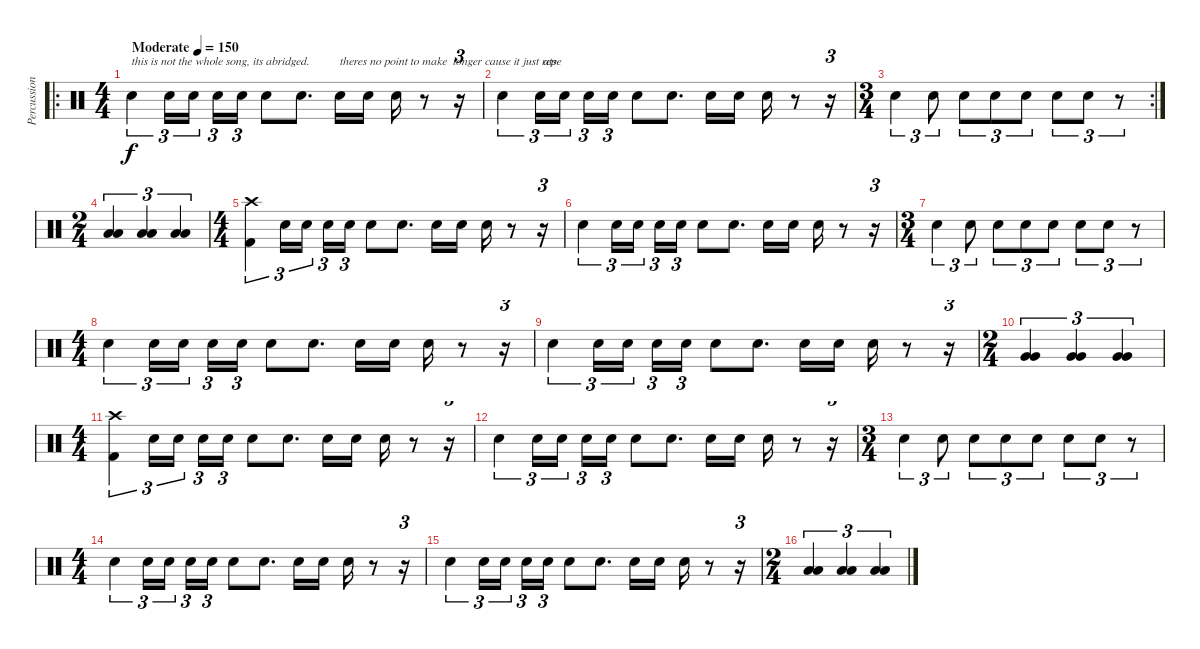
\track ("Percussion" "Percussion") {instrument percussion}
\staff {score}
\articulation defaults
\ro
\ts (4 4)
\tempo (150 "Moderate")
\clef neutral
\ks c "Electric Snare (hit)".4{tu (3 2) txt "this is not the whole song, its abridged. " dy f} "Electric Snare (hit)".16{tu (3 2)} "Electric Snare (hit)".16{tu (3 2)} "Electric Snare (hit)".16{tu (3 2)} "Electric Snare (hit)".16{tu (3 2)} "Electric Snare (hit)".8 "Electric Snare (hit)".8{d} "Electric Snare (hit)".16{txt "theres no point to make  longer cause it just repe"} "Electric Snare (hit)".16 "Electric Snare (hit)".16
r.8 r.16{tu (3 2)} |
"Electric Snare (hit)".4{tu (3 2)} "Electric Snare (hit)".16{tu (3 2) txt " ats"} "Electric Snare (hit)".16{tu (3 2)} "Electric Snare (hit)".16{tu (3 2)} "Electric Snare (hit)".16{tu (3 2)} "Electric Snare (hit)".8 "Electric Snare (hit)".8{d} "Electric Snare (hit)".16 "Electric Snare (hit)".16 "Electric Snare (hit)".16 r.8 r.16{tu (3 2)} |
\rc 2
\ts (3 4)
"Electric Snare (hit)".4{tu (3 2)} "Electric Snare (hit)".8{tu (3 2)} "Electric Snare (hit)".8{tu (3 2)} "Electric Snare (hit)".8{tu (3 2)} "Electric Snare (hit)".8{tu (3 2)} "Electric Snare (hit)".8{tu (3 2)} "Electric Snare (hit)".8{tu (3 2)} r.8{tu (3 2)} |
\ts (2 4)
("Low Floor Tom (hit)" "Low Floor Tom (hit)").4{tu (3 2)} ("Low Floor Tom (hit)" "Low Floor Tom (hit)").4{tu (3 2)} ("Low Floor Tom (hit)" "Low Floor Tom (hit)").4{tu (3 2)} |
\ts (4 4)
("Crash high (hit)" "Kick (hit) 2").4{tu (3 2)} "Electric Snare (hit)".16{tu (3 2)} "Electric Snare (hit)".16{tu (3 2)} "Electric Snare (hit)".16{tu (3 2)} "Electric Snare (hit)".16{tu (3 2)} "Electric Snare (hit)".8 "Electric Snare (hit)".8{d} "Electric Snare (hit)".16 "Electric Snare (hit)".16 "Electric Snare (hit)".16 r.8 r.16{tu (3 2)} |
"Electric Snare (hit)".4{tu (3 2)} "Electric Snare (hit)".16{tu (3 2)} "Electric Snare (hit)".16{tu (3 2)} "Electric Snare (hit)".16{tu (3 2)} "Electric Snare (hit)".16{tu (3 2)} "Electric Snare (hit)".8 "Electric Snare (hit)".8{d} "Electric Snare (hit)".16 "Electric Snare (hit)".16 "Electric Snare (hit)".16 r.8 r.16{tu (3 2)} |
\ts (3 4)
"Electric Snare (hit)".4{tu (3 2)} "Electric Snare (hit)".8{tu (3 2)} "Electric Snare (hit)".8{tu (3 2)} "Electric Snare (hit)".8{tu (3 2)} "Electric Snare (hit)".8{tu (3 2)} "Electric Snare (hit)".8{tu (3 2)} "Electric Snare (hit)".8{tu (3 2)} r.8{tu (3 2)} |
\ts (4 4)
"Electric Snare (hit)".4{tu (3 2)} "Electric Snare (hit)".16{tu (3 2)} "Electric Snare (hit)".16{tu (3 2)} "Electric Snare (hit)".16{tu (3 2)} "Electric Snare (hit)".16{tu (3 2)} "Electric Snare (hit)".8 "Electric Snare (hit)".8{d} "Electric Snare (hit)".16 "Electric Snare (hit)".16 "Electric Snare (hit)".16 r.8 r.16{tu (3 2)} |
"Electric Snare (hit)".4{tu (3 2)} "Electric Snare (hit)".16{tu (3 2)} "Electric Snare (hit)".16{tu (3 2)} "Electric Snare (hit)".16{tu (3 2)} "Electric Snare (hit)".16{tu (3 2)} "Electric Snare (hit)".8 "Electric Snare (hit)".8{d} "Electric Snare (hit)".16 "Electric Snare (hit)".16 "Electric Snare (hit)".16 r.8 r.16{tu (3 2)} |
\ts (2 4)
("Very Low Tom (hit)" "Very Low Tom (hit)").4{tu (3 2)} ("Very Low Tom (hit)" "Very Low Tom (hit)").4{tu (3 2)} ("Very Low Tom (hit)" "Very Low Tom (hit)").4{tu (3 2)} |
\ts (4 4)
("Crash high (hit)" "Kick (hit) 2").4{tu (3 2)} "Electric Snare (hit)".16{tu (3 2)} "Electric Snare (hit)".16{tu (3 2)} "Electric Snare (hit)".16{tu (3 2)} "Electric Snare (hit)".16{tu (3 2)} "Electric Snare (hit)".8 "Electric Snare (hit)".8{d} "Electric Snare (hit)".16 "Electric Snare (hit)".16 "Electric Snare (hit)".16 r.8 r.16{tu (3 2)} |
"Electric Snare (hit)".4{tu (3 2)} "Electric Snare (hit)".16{tu (3 2)} "Electric Snare (hit)".16{tu (3 2)} "Electric Snare (hit)".16{tu (3 2)} "Electric Snare (hit)".16{tu (3 2)} "Electric Snare (hit)".8 "Electric Snare (hit)".8{d} "Electric Snare (hit)".16 "Electric Snare (hit)".16 "Electric Snare (hit)".16 r.8 r.16{tu (3 2)} |
\ts (3 4)
"Electric Snare (hit)".4{tu (3 2)} "Electric Snare (hit)".8{tu (3 2)} "Electric Snare (hit)".8{tu (3 2)} "Electric Snare (hit)".8{tu (3 2)} "Electric Snare (hit)".8{tu (3 2)} "Electric Snare (hit)".8{tu (3 2)} "Electric Snare (hit)".8{tu (3 2)} r.8{tu (3 2)} |
\ts (4 4)
"Electric Snare (hit)".4{tu (3 2)} "Electric Snare (hit)".16{tu (3 2)} "Electric Snare (hit)".16{tu (3 2)} "Electric Snare (hit)".16{tu (3 2)} "Electric Snare (hit)".16{tu (3 2)} "Electric Snare (hit)".8 "Electric Snare (hit)".8{d} "Electric Snare (hit)".16 "Electric Snare (hit)".16 "Electric Snare (hit)".16 r.8 r.16{tu (3 2)} |
"Electric Snare (hit)".4{tu (3 2)} "Electric Snare (hit)".16{tu (3 2)} "Electric Snare (hit)".16{tu (3 2)} "Electric Snare (hit)".16{tu (3 2)} "Electric Snare (hit)".16{tu (3 2)} "Electric Snare (hit)".8 "Electric Snare (hit)".8{d} "Electric Snare (hit)".16 "Electric Snare (hit)".16 "Electric Snare (hit)".16 r.8 r.16{tu (3 2)} |
\ts (2 4)
("Low Tom (hit)" "Low Tom (hit)").4{tu (3 2)} ("Low Tom (hit)" "Low Tom (hit)").4{tu (3 2)} ("Low Tom (hit)" "Low Tom (hit)").4{tu (3 2)}
